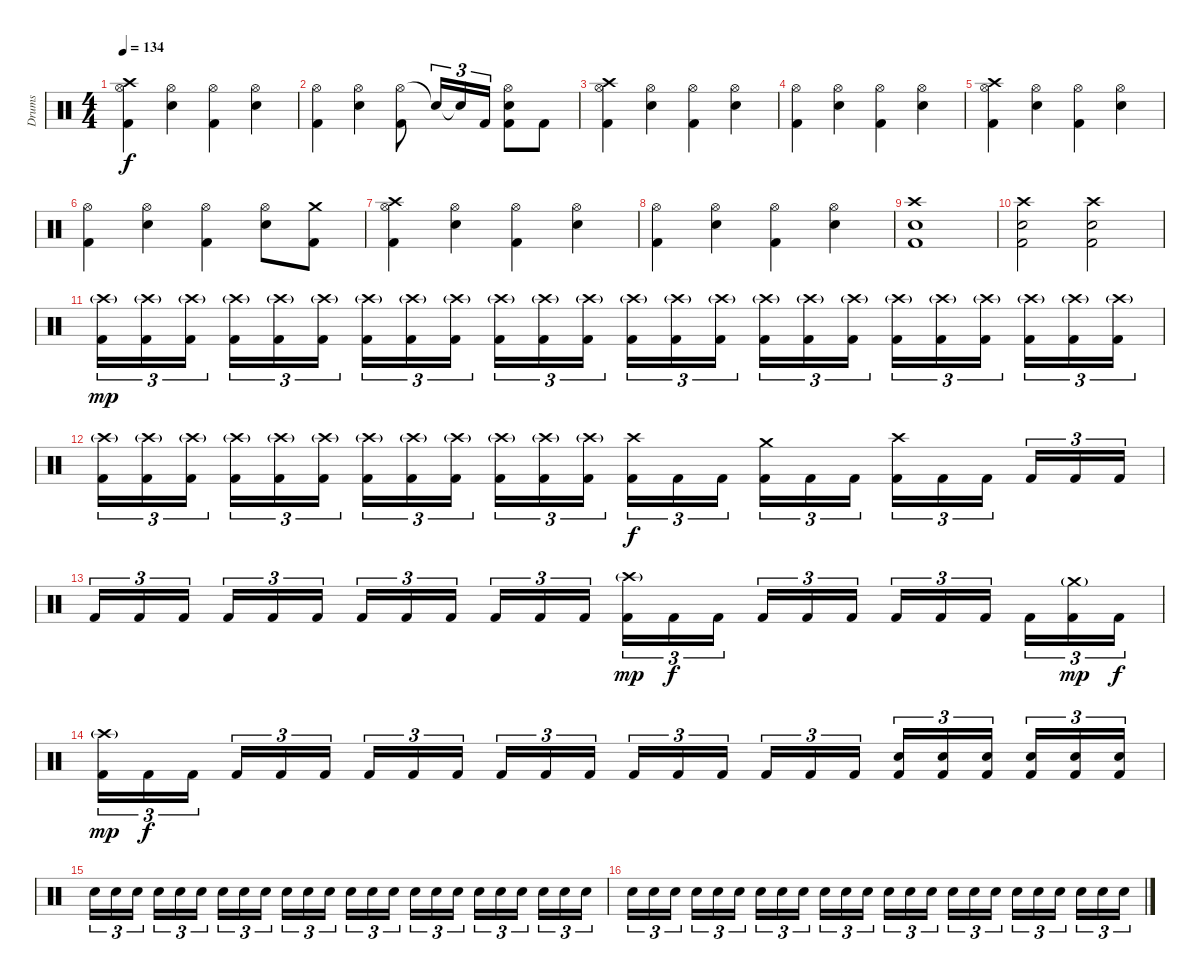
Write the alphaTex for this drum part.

\track ("Drums" "Drums") {instrument percussion}
\staff {score}
\articulation defaults
\ts (4 4)
\tempo 134
\clef neutral
\ks c
("Crash high (hit)" "Hi-Hat (open)" "Kick (hit) 2").4{dy f} ("Hi-Hat (open)" "Electric Snare (hit)").4 ("Hi-Hat (open)" "Kick (hit) 2").4 ("Hi-Hat (open)" "Electric Snare (hit)").4 |
("Hi-Hat (open)" "Kick (hit) 2").4 ("Hi-Hat (open)" "Electric Snare (hit)").4 ("Hi-Hat (open)" "Kick (hit) 2").8 "Snare (hit)"{t}.16{tu (3 2)} "Snare (hit)"{t}.16{tu (3 2)} "Kick (hit) 2".16{tu (3 2)} ("Hi-Hat (open)" "Electric Snare (hit)" "Kick (hit) 2").8 "Kick (hit) 2".8 |
("Crash high (hit)" "Hi-Hat (open)" "Kick (hit) 2").4 ("Hi-Hat (open)" "Electric Snare (hit)").4 ("Hi-Hat (open)" "Kick (hit) 2").4 ("Hi-Hat (open)" "Electric Snare (hit)").4 |
("Hi-Hat (open)" "Kick (hit) 2").4 ("Hi-Hat (open)" "Electric Snare (hit)").4 ("Hi-Hat (open)" "Kick (hit) 2").4 ("Hi-Hat (open)" "Electric Snare (hit)").4 |
("Crash high (hit)" "Hi-Hat (open)" "Kick (hit) 2").4 ("Hi-Hat (open)" "Electric Snare (hit)").4 ("Hi-Hat (open)" "Kick (hit) 2").4 ("Hi-Hat (open)" "Electric Snare (hit)").4 |
("Hi-Hat (open)" "Kick (hit) 2").4 ("Hi-Hat (open)" "Electric Snare (hit)").4 ("Hi-Hat (open)" "Kick (hit) 2").4 ("Hi-Hat (open)" "Electric Snare (hit)").8 ("Crash medium (hit)" "Kick (hit) 2").8 |
("Crash high (hit)" "Hi-Hat (open)" "Kick (hit) 2").4 ("Hi-Hat (open)" "Electric Snare (hit)").4 ("Hi-Hat (open)" "Kick (hit) 2").4 ("Hi-Hat (open)" "Electric Snare (hit)").4 |
("Hi-Hat (open)" "Kick (hit) 2").4 ("Hi-Hat (open)" "Electric Snare (hit)").4 ("Hi-Hat (open)" "Kick (hit) 2").4 ("Hi-Hat (open)" "Electric Snare (hit)").4 |
("Crash high (hit)" "Electric Snare (hit)" "Kick (hit) 2").1 |
("Crash high (hit)" "Electric Snare (hit)" "Kick (hit) 2").2 ("Crash high (hit)" "Electric Snare (hit)" "Kick (hit) 2").2 |
("Crash high (hit)"{g} "Kick (hit) 2").16{tu (3 2) dy mp} ("Crash high (hit)"{g} "Kick (hit) 2").16{tu (3 2)} ("Crash high (hit)"{g} "Kick (hit) 2").16{tu (3 2)} ("Crash high (hit)"{g} "Kick (hit) 2").16{tu (3 2)} ("Crash high (hit)"{g} "Kick (hit) 2").16{tu (3 2)} ("Crash high (hit)"{g} "Kick (hit) 2").16{tu (3 2)} ("Crash high (hit)"{g} "Kick (hit) 2").16{tu (3 2)} ("Crash high (hit)"{g} "Kick (hit) 2").16{tu (3 2)} ("Crash high (hit)"{g} "Kick (hit) 2").16{tu (3 2)} ("Crash high (hit)"{g} "Kick (hit) 2").16{tu (3 2)} ("Crash high (hit)"{g} "Kick (hit) 2").16{tu (3 2)} ("Crash high (hit)"{g} "Kick (hit) 2").16{tu (3 2)} ("Crash high (hit)"{g} "Kick (hit) 2").16{tu (3 2)} ("Crash high (hit)"{g} "Kick (hit) 2").16{tu (3 2)} ("Crash high (hit)"{g} "Kick (hit) 2").16{tu (3 2)} ("Crash high (hit)"{g} "Kick (hit) 2").16{tu (3 2)} ("Crash high (hit)"{g} "Kick (hit) 2").16{tu (3 2)} ("Crash high (hit)"{g} "Kick (hit) 2").16{tu (3 2)} ("Crash high (hit)"{g} "Kick (hit) 2").16{tu (3 2)} ("Crash high (hit)"{g} "Kick (hit) 2").16{tu (3 2)} ("Crash high (hit)"{g} "Kick (hit) 2").16{tu (3 2)} ("Crash high (hit)"{g} "Kick (hit) 2").16{tu (3 2)} ("Crash high (hit)"{g} "Kick (hit) 2").16{tu (3 2)} ("Crash high (hit)"{g} "Kick (hit) 2").16{tu (3 2)} |
("Crash high (hit)"{g} "Kick (hit) 2").16{tu (3 2)} ("Crash high (hit)"{g} "Kick (hit) 2").16{tu (3 2)} ("Crash high (hit)"{g} "Kick (hit) 2").16{tu (3 2)} ("Crash high (hit)"{g} "Kick (hit) 2").16{tu (3 2)} ("Crash high (hit)"{g} "Kick (hit) 2").16{tu (3 2)} ("Crash high (hit)"{g} "Kick (hit) 2").16{tu (3 2)} ("Crash high (hit)"{g} "Kick (hit) 2").16{tu (3 2)} ("Crash high (hit)"{g} "Kick (hit) 2").16{tu (3 2)} ("Crash high (hit)"{g} "Kick (hit) 2").16{tu (3 2)} ("Crash high (hit)"{g} "Kick (hit) 2").16{tu (3 2)} ("Crash high (hit)"{g} "Kick (hit) 2").16{tu (3 2)} ("Crash high (hit)"{g} "Kick (hit) 2").16{tu (3 2)} ("Crash high (hit)" "Kick (hit) 2").16{tu (3 2) dy f} "Kick (hit) 2".16{tu (3 2)} "Kick (hit) 2".16{tu (3 2)} ("Crash medium (hit)" "Kick (hit) 2").16{tu (3 2)} "Kick (hit) 2".16{tu (3 2)} "Kick (hit) 2".16{tu (3 2)} ("Crash high (hit)" "Kick (hit) 2").16{tu (3 2)} "Kick (hit) 2".16{tu (3 2)} "Kick (hit) 2".16{tu (3 2)} "Kick (hit) 2".16{tu (3 2)} "Kick (hit) 2".16{tu (3 2)} "Kick (hit) 2".16{tu (3 2)} |
"Kick (hit) 2".16{tu (3 2)} "Kick (hit) 2".16{tu (3 2)} "Kick (hit) 2".16{tu (3 2)} "Kick (hit) 2".16{tu (3 2)} "Kick (hit) 2".16{tu (3 2)} "Kick (hit) 2".16{tu (3 2)} "Kick (hit) 2".16{tu (3 2)} "Kick (hit) 2".16{tu (3 2)} "Kick (hit) 2".16{tu (3 2)} "Kick (hit) 2".16{tu (3 2)} "Kick (hit) 2".16{tu (3 2)} "Kick (hit) 2".16{tu (3 2)} ("Crash high (hit)"{g} "Kick (hit) 2").16{tu (3 2) dy mp} "Kick (hit) 2".16{tu (3 2) dy f} "Kick (hit) 2".16{tu (3 2)} "Kick (hit) 2".16{tu (3 2)} "Kick (hit) 2".16{tu (3 2)} "Kick (hit) 2".16{tu (3 2)} "Kick (hit) 2".16{tu (3 2)} "Kick (hit) 2".16{tu (3 2)} "Kick (hit) 2".16{tu (3 2)} "Kick (hit) 2".16{tu (3 2)} ("Crash medium (hit)"{g} "Kick (hit) 2").16{tu (3 2) dy mp} "Kick (hit) 2".16{tu (3 2) dy f} |
("Crash high (hit)"{g} "Kick (hit) 2").16{tu (3 2) dy mp} "Kick (hit) 2".16{tu (3 2) dy f} "Kick (hit) 2".16{tu (3 2)} "Kick (hit) 2".16{tu (3 2)} "Kick (hit) 2".16{tu (3 2)} "Kick (hit) 2".16{tu (3 2)} "Kick (hit) 2".16{tu (3 2)} "Kick (hit) 2".16{tu (3 2)} "Kick (hit) 2".16{tu (3 2)} "Kick (hit) 2".16{tu (3 2)} "Kick (hit) 2".16{tu (3 2)} "Kick (hit) 2".16{tu (3 2)} "Kick (hit) 2".16{tu (3 2)} "Kick (hit) 2".16{tu (3 2)} "Kick (hit) 2".16{tu (3 2)} "Kick (hit) 2".16{tu (3 2)} "Kick (hit) 2".16{tu (3 2)} "Kick (hit) 2".16{tu (3 2)} ("Electric Snare (hit)" "Kick (hit) 2").16{tu (3 2)} ("Electric Snare (hit)" "Kick (hit) 2").16{tu (3 2)} ("Electric Snare (hit)" "Kick (hit) 2").16{tu (3 2)} ("Electric Snare (hit)" "Kick (hit) 2").16{tu (3 2)} ("Electric Snare (hit)" "Kick (hit) 2").16{tu (3 2)} ("Electric Snare (hit)" "Kick (hit) 2").16{tu (3 2)} |
"Electric Snare (hit)".16{tu (3 2)} "Electric Snare (hit)".16{tu (3 2)} "Electric Snare (hit)".16{tu (3 2)} "Electric Snare (hit)".16{tu (3 2)} "Electric Snare (hit)".16{tu (3 2)} "Electric Snare (hit)".16{tu (3 2)} "Electric Snare (hit)".16{tu (3 2)} "Electric Snare (hit)".16{tu (3 2)} "Electric Snare (hit)".16{tu (3 2)} "Electric Snare (hit)".16{tu (3 2)} "Electric Snare (hit)".16{tu (3 2)} "Electric Snare (hit)".16{tu (3 2)} "Electric Snare (hit)".16{tu (3 2)} "Electric Snare (hit)".16{tu (3 2)} "Electric Snare (hit)".16{tu (3 2)} "Electric Snare (hit)".16{tu (3 2)} "Electric Snare (hit)".16{tu (3 2)} "Electric Snare (hit)".16{tu (3 2)} "Electric Snare (hit)".16{tu (3 2)} "Electric Snare (hit)".16{tu (3 2)} "Electric Snare (hit)".16{tu (3 2)} "Electric Snare (hit)".16{tu (3 2)} "Electric Snare (hit)".16{tu (3 2)} "Electric Snare (hit)".16{tu (3 2)} |
"Electric Snare (hit)".16{tu (3 2)} "Electric Snare (hit)".16{tu (3 2)} "Electric Snare (hit)".16{tu (3 2)} "Electric Snare (hit)".16{tu (3 2)} "Electric Snare (hit)".16{tu (3 2)} "Electric Snare (hit)".16{tu (3 2)} "Electric Snare (hit)".16{tu (3 2)} "Electric Snare (hit)".16{tu (3 2)} "Electric Snare (hit)".16{tu (3 2)} "Electric Snare (hit)".16{tu (3 2)} "Electric Snare (hit)".16{tu (3 2)} "Electric Snare (hit)".16{tu (3 2)} "Electric Snare (hit)".16{tu (3 2)} "Electric Snare (hit)".16{tu (3 2)} "Electric Snare (hit)".16{tu (3 2)} "Electric Snare (hit)".16{tu (3 2)} "Electric Snare (hit)".16{tu (3 2)} "Electric Snare (hit)".16{tu (3 2)} "Electric Snare (hit)".16{tu (3 2)} "Electric Snare (hit)".16{tu (3 2)} "Electric Snare (hit)".16{tu (3 2)} "Electric Snare (hit)".16{tu (3 2)} "Electric Snare (hit)".16{tu (3 2)} "Electric Snare (hit)".16{tu (3 2)}
